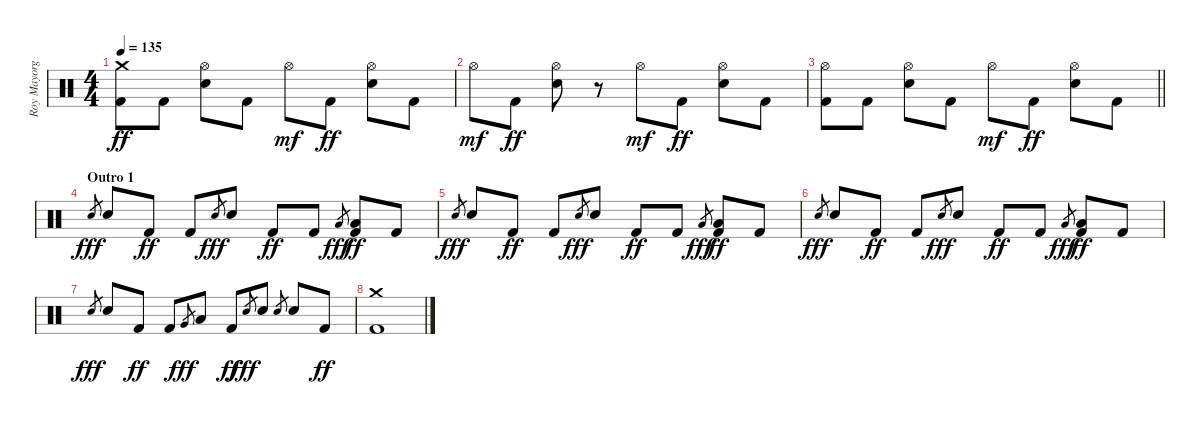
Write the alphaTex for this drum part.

\track ("Roy Mayorga" "Roy Mayorg") {instrument percussion}
\staff {score}
\articulation defaults
\ts (4 4)
\tempo 135
\clef neutral
\ks c
("Crash medium (hit)" "Kick (hit) 2").8{dy ff} "Kick (hit) 2".8 ("Hi-Hat (open)" "Electric Snare (hit)").8 "Kick (hit) 2".8 "Hi-Hat (open)".8{dy mf} "Kick (hit) 2".8{dy ff} ("Hi-Hat (open)" "Electric Snare (hit)").8 "Kick (hit) 2".8 |
"Hi-Hat (open)".8{dy mf} "Kick (hit) 2".8{dy ff} ("Hi-Hat (open)" "Electric Snare (hit)").8 r.8 "Hi-Hat (open)".8{dy mf} "Kick (hit) 2".8{dy ff} ("Hi-Hat (open)" "Electric Snare (hit)").8 "Kick (hit) 2".8 |
\barLineRight lightlight
("Hi-Hat (open)" "Kick (hit) 2").8 "Kick (hit) 2".8 ("Hi-Hat (open)" "Electric Snare (hit)").8 "Kick (hit) 2".8 "Hi-Hat (open)".8{dy mf} "Kick (hit) 2".8{dy ff} ("Hi-Hat (open)" "Electric Snare (hit)").8 "Kick (hit) 2".8 |
\section ("" "Outro 1")
"Electric Snare (hit)".8{gr dy fff} "Electric Snare (hit)".8 "Kick (hit) 2".8{dy ff} "Kick (hit) 2".8 "Electric Snare (hit)".8{gr dy fff} "Electric Snare (hit)".8 "Kick (hit) 2".8{dy ff} "Kick (hit) 2".8 "Low Floor Tom (hit)".8{gr dy fff} ("Low Floor Tom (hit)" "Kick (hit) 2").8{dy ff} "Kick (hit) 2".8 |
"Electric Snare (hit)".8{gr dy fff} "Electric Snare (hit)".8 "Kick (hit) 2".8{dy ff} "Kick (hit) 2".8 "Electric Snare (hit)".8{gr dy fff} "Electric Snare (hit)".8 "Kick (hit) 2".8{dy ff} "Kick (hit) 2".8 "Low Floor Tom (hit)".8{gr dy fff} ("Low Floor Tom (hit)" "Kick (hit) 2").8{dy ff} "Kick (hit) 2".8 |
"Electric Snare (hit)".8{gr dy fff} "Electric Snare (hit)".8 "Kick (hit) 2".8{dy ff} "Kick (hit) 2".8 "Electric Snare (hit)".8{gr dy fff} "Electric Snare (hit)".8 "Kick (hit) 2".8{dy ff} "Kick (hit) 2".8 "Low Floor Tom (hit)".8{gr dy fff} ("Low Floor Tom (hit)" "Kick (hit) 2").8{dy ff} "Kick (hit) 2".8 |
"Electric Snare (hit)".8{gr dy fff} "Electric Snare (hit)".8 "Kick (hit) 2".8{dy ff} "Kick (hit) 2".8 "Very Low Tom (hit)".8{gr dy fff} "Low Floor Tom (hit)".8 "Kick (hit) 2".8{dy ff} "Electric Snare (hit)".8{gr dy fff} "Electric Snare (hit)".8 "Electric Snare (hit)".8{gr} "Electric Snare (hit)".8 "Kick (hit) 2".8{dy ff} |
("Crash medium (hit)" "Kick (hit) 2").1
